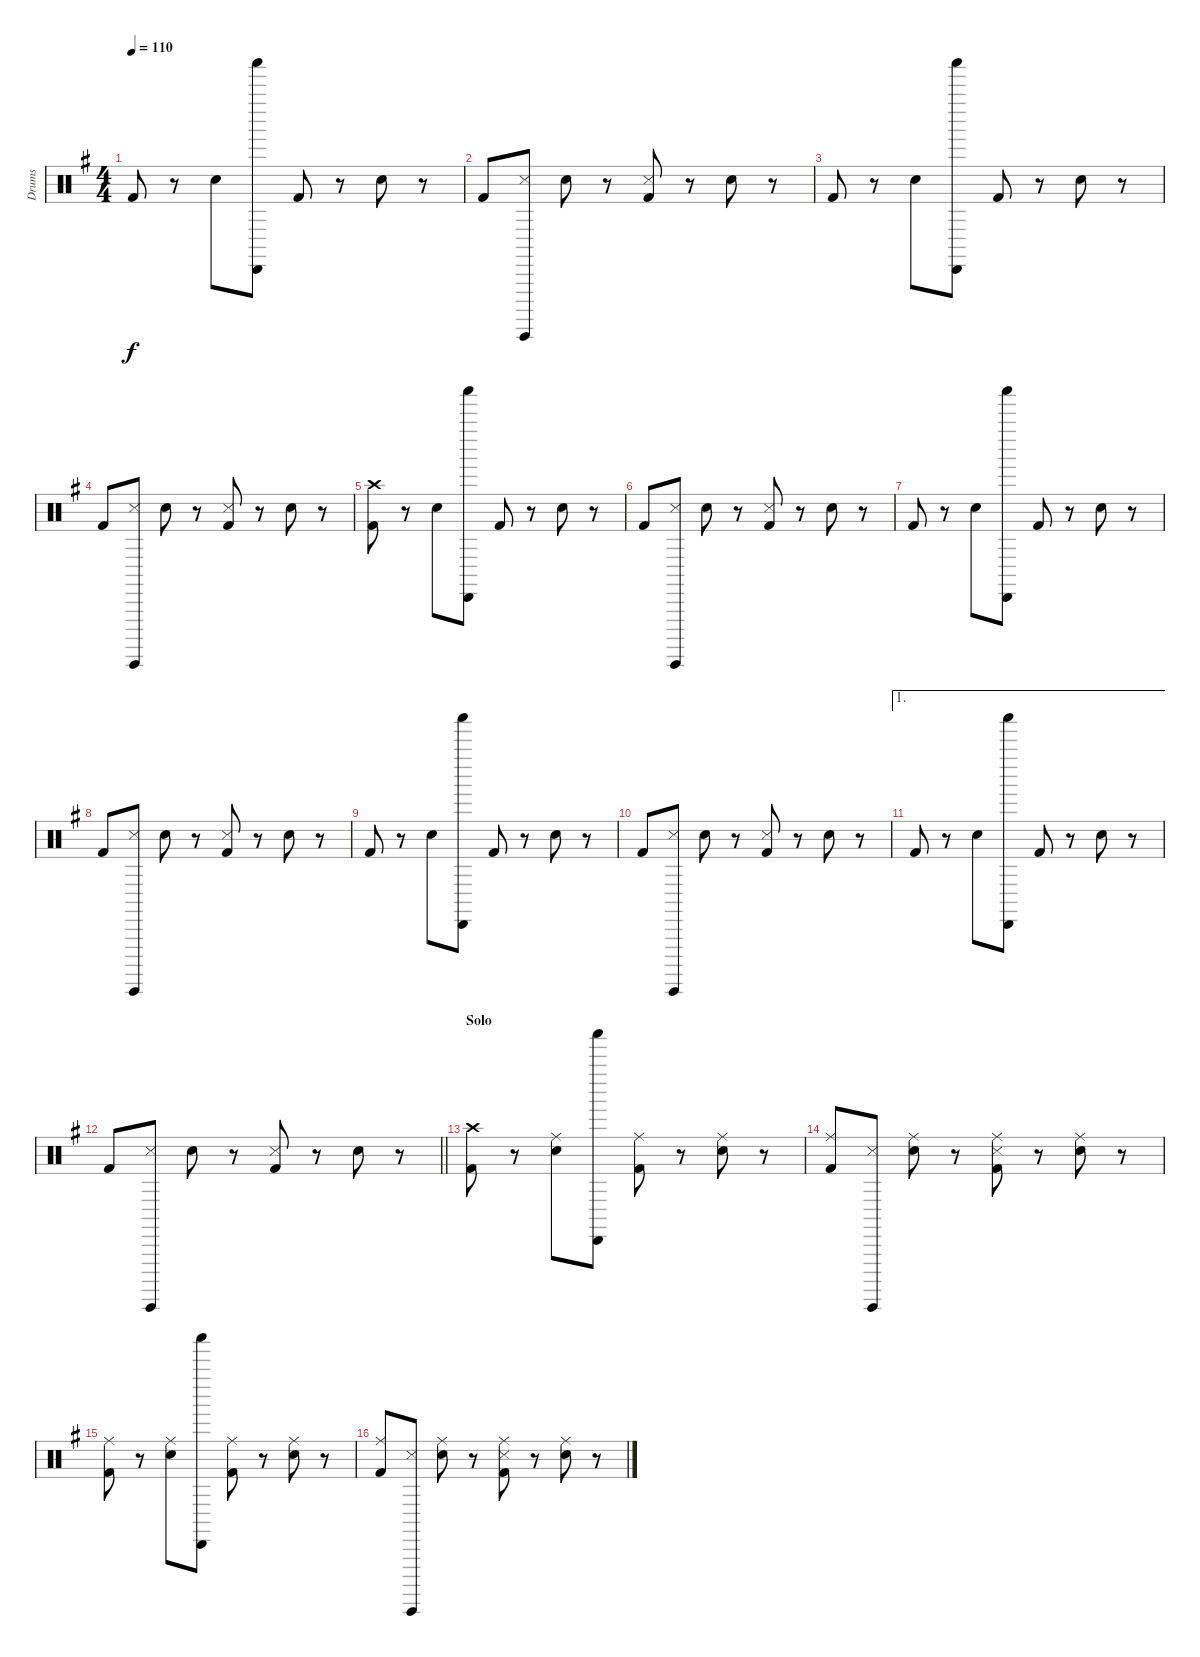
\track ("Drums" "Drums") {instrument percussion}
\staff {score}
\articulation defaults
\ts (4 4)
\tempo 110
\clef neutral
\ks eminor "Kick (hit) 2".8{dy f}
r.8 "Electric Snare (hit)".8 ("Shaker (hit)" "Cabasa (hit)").8 "Kick (hit) 2".8 r.8 "Electric Snare (hit)".8 r.8 |
"Kick (hit) 2".8 ("Snare (side stick) 3" "Guiro (hit)").8 "Electric Snare (hit)".8 r.8 ("Snare (side stick) 3" "Kick (hit) 2").8 r.8 "Electric Snare (hit)".8 r.8 |
"Kick (hit) 2".8 r.8 "Electric Snare (hit)".8 ("Shaker (hit)" "Cabasa (hit)").8 "Kick (hit) 2".8 r.8 "Electric Snare (hit)".8 r.8 |
"Kick (hit) 2".8 ("Snare (side stick) 3" "Guiro (hit)").8 "Electric Snare (hit)".8 r.8 ("Snare (side stick) 3" "Kick (hit) 2").8 r.8 "Electric Snare (hit)".8 r.8 |
("Crash high (hit)" "Kick (hit) 2").8 r.8 "Electric Snare (hit)".8 ("Shaker (hit)" "Cabasa (hit)").8 "Kick (hit) 2".8 r.8 "Electric Snare (hit)".8 r.8 |
"Kick (hit) 2".8 ("Snare (side stick) 3" "Guiro (hit)").8 "Electric Snare (hit)".8 r.8 ("Snare (side stick) 3" "Kick (hit) 2").8 r.8 "Electric Snare (hit)".8 r.8 |
"Kick (hit) 2".8 r.8 "Electric Snare (hit)".8 ("Shaker (hit)" "Cabasa (hit)").8 "Kick (hit) 2".8 r.8 "Electric Snare (hit)".8 r.8 |
"Kick (hit) 2".8 ("Snare (side stick) 3" "Guiro (hit)").8 "Electric Snare (hit)".8 r.8 ("Snare (side stick) 3" "Kick (hit) 2").8 r.8 "Electric Snare (hit)".8 r.8 |
"Kick (hit) 2".8 r.8 "Electric Snare (hit)".8 ("Shaker (hit)" "Cabasa (hit)").8 "Kick (hit) 2".8 r.8 "Electric Snare (hit)".8 r.8 |
"Kick (hit) 2".8 ("Snare (side stick) 3" "Guiro (hit)").8 "Electric Snare (hit)".8 r.8 ("Snare (side stick) 3" "Kick (hit) 2").8 r.8 "Electric Snare (hit)".8 r.8 |
\ae 1 "Kick (hit) 2".8
r.8 "Electric Snare (hit)".8 ("Shaker (hit)" "Cabasa (hit)").8 "Kick (hit) 2".8 r.8 "Electric Snare (hit)".8 r.8 |
\barLineRight lightlight "Kick (hit) 2".8
("Snare (side stick) 3" "Guiro (hit)").8 "Electric Snare (hit)".8 r.8 ("Snare (side stick) 3" "Kick (hit) 2").8 r.8 "Electric Snare (hit)".8 r.8 |
\section ("" "Solo")
("Crash high (hit)" "Kick (hit) 2").8 r.8 ("Ride (middle)" "Electric Snare (hit)").8 ("Shaker (hit)" "Cabasa (hit)").8 ("Ride (middle)" "Kick (hit) 2").8 r.8 ("Ride (middle)" "Electric Snare (hit)").8 r.8 |
("Ride (middle)" "Kick (hit) 2").8 ("Snare (side stick) 3" "Guiro (hit)").8 ("Ride (middle)" "Electric Snare (hit)").8 r.8 ("Ride (middle)" "Snare (side stick) 3" "Kick (hit) 2").8 r.8 ("Ride (middle)" "Electric Snare (hit)").8 r.8 |
("Ride (middle)" "Kick (hit) 2").8 r.8 ("Ride (middle)" "Electric Snare (hit)").8 ("Shaker (hit)" "Cabasa (hit)").8 ("Ride (middle)" "Kick (hit) 2").8 r.8 ("Ride (middle)" "Electric Snare (hit)").8 r.8 |
("Ride (middle)" "Kick (hit) 2").8 ("Snare (side stick) 3" "Guiro (hit)").8 ("Ride (middle)" "Electric Snare (hit)").8 r.8 ("Ride (middle)" "Snare (side stick) 3" "Kick (hit) 2").8 r.8 ("Ride (middle)" "Electric Snare (hit)").8 r.8
